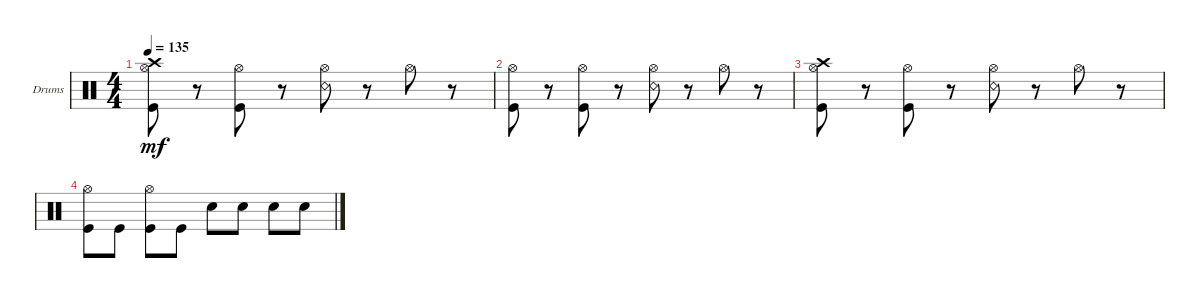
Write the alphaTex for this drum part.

\defaultSystemsLayout 4
\bracketExtendMode groupsimilarinstruments
\firstSystemTrackNameOrientation horizontal
\otherSystemsTrackNameOrientation horizontal
\track ("Drumkit" "Drums") {instrument percussion}
\staff {score}
\articulation defaults
\ts (4 4)
\tempo 135
\clef neutral
\ks c
("Crash high (hit)" "Kick (hit)" "Hi-Hat (open)").8{dy mf} r.8 ("Kick (hit)" "Hi-Hat (open)").8 r.8 ("Snare (rim shot)" "Hi-Hat (open)").8 r.8 "Hi-Hat (open)".8 r.8 |
("Kick (hit)" "Hi-Hat (open)").8 r.8 ("Kick (hit)" "Hi-Hat (open)").8 r.8 ("Snare (rim shot)" "Hi-Hat (open)").8 r.8 "Hi-Hat (open)".8 r.8 |
("Crash high (hit)" "Kick (hit)" "Hi-Hat (open)").8 r.8 ("Kick (hit)" "Hi-Hat (open)").8 r.8 ("Snare (rim shot)" "Hi-Hat (open)").8 r.8 "Hi-Hat (open)".8 r.8 |
("Kick (hit)" "Hi-Hat (open)").8 "Kick (hit)".8 ("Kick (hit)" "Hi-Hat (open)").8 "Kick (hit)".8 "Snare (hit) 2".8 "Snare (hit) 2".8 "Snare (hit) 2".8 "Snare (hit) 2".8
